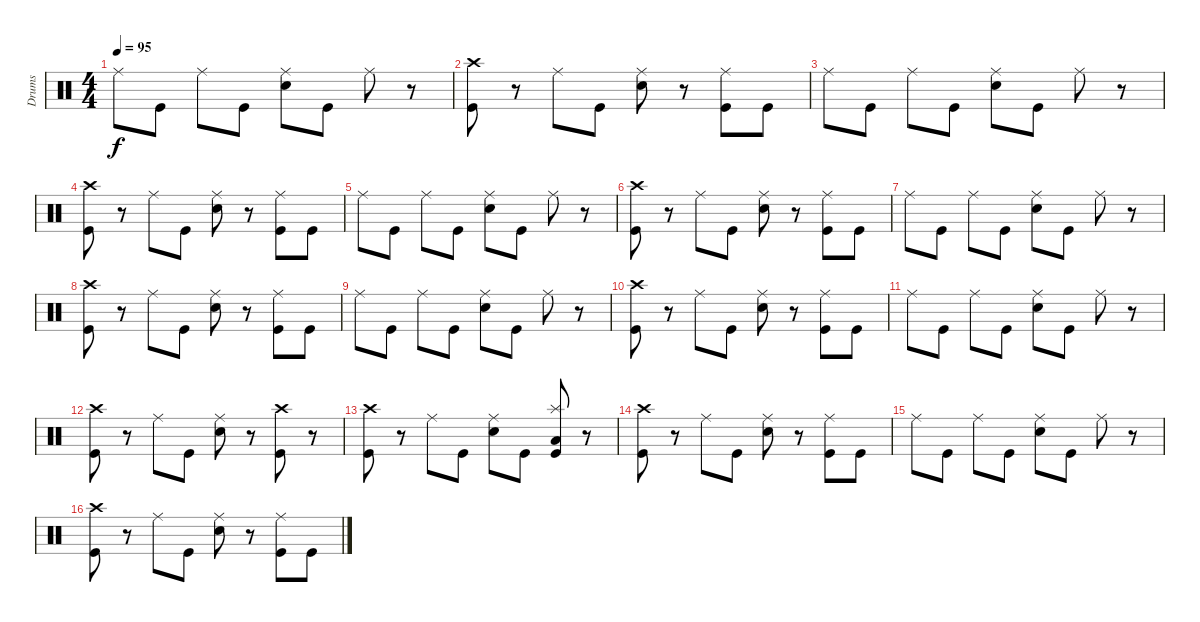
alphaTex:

\track ("Drums" "Drums") {instrument percussion}
\staff {score}
\articulation defaults
\ts (4 4)
\tempo 95
\clef neutral
\ks c "Ride (middle)".8{dy f} "Kick (hit)".8 "Ride (middle)".8 "Kick (hit)".8
("Ride (middle)" "Snare (hit) 2").8 "Kick (hit)".8 "Ride (middle)".8 r.8 |
("Crash high (hit)" "Kick (hit)").8 r.8 "Ride (middle)".8 "Kick (hit)".8 ("Ride (middle)" "Snare (hit) 2").8 r.8 ("Ride (middle)" "Kick (hit)").8 "Kick (hit)".8 |
"Ride (middle)".8 "Kick (hit)".8 "Ride (middle)".8 "Kick (hit)".8 ("Ride (middle)" "Snare (hit) 2").8 "Kick (hit)".8 "Ride (middle)".8 r.8 |
("Crash high (hit)" "Kick (hit)").8 r.8 "Ride (middle)".8 "Kick (hit)".8 ("Ride (middle)" "Snare (hit) 2").8 r.8 ("Ride (middle)" "Kick (hit)").8 "Kick (hit)".8 |
"Ride (middle)".8 "Kick (hit)".8 "Ride (middle)".8 "Kick (hit)".8 ("Ride (middle)" "Snare (hit) 2").8 "Kick (hit)".8 "Ride (middle)".8 r.8 |
("Crash high (hit)" "Kick (hit)").8 r.8 "Ride (middle)".8 "Kick (hit)".8 ("Ride (middle)" "Snare (hit) 2").8 r.8 ("Ride (middle)" "Kick (hit)").8 "Kick (hit)".8 |
"Ride (middle)".8 "Kick (hit)".8 "Ride (middle)".8 "Kick (hit)".8 ("Ride (middle)" "Snare (hit) 2").8 "Kick (hit)".8 "Ride (middle)".8 r.8 |
("Crash high (hit)" "Kick (hit)").8 r.8 "Ride (middle)".8 "Kick (hit)".8 ("Ride (middle)" "Snare (hit) 2").8 r.8 ("Ride (middle)" "Kick (hit)").8 "Kick (hit)".8 |
"Ride (middle)".8 "Kick (hit)".8 "Ride (middle)".8 "Kick (hit)".8 ("Ride (middle)" "Snare (hit) 2").8 "Kick (hit)".8 "Ride (middle)".8 r.8 |
("Crash high (hit)" "Kick (hit)").8 r.8 "Ride (middle)".8 "Kick (hit)".8 ("Ride (middle)" "Snare (hit) 2").8 r.8 ("Ride (middle)" "Kick (hit)").8 "Kick (hit)".8 |
"Ride (middle)".8 "Kick (hit)".8 "Ride (middle)".8 "Kick (hit)".8 ("Ride (middle)" "Snare (hit) 2").8 "Kick (hit)".8 "Ride (middle)".8 r.8 |
("Crash high (hit)" "Kick (hit)").8 r.8 "Ride (middle)".8 "Kick (hit)".8 ("Ride (middle)" "Snare (hit) 2").8 r.8 ("Crash high (hit)" "Kick (hit)").8 r.8 |
("Crash high (hit)" "Kick (hit)").8 r.8 "Ride (middle)".8 "Kick (hit)".8 ("Ride (middle)" "Snare (hit) 2").8 "Kick (hit)".8 ("Splash (hit)" "Low Floor Tom (hit)" "Kick (hit)").8 r.8 |
("Crash high (hit)" "Kick (hit)").8 r.8 "Ride (middle)".8 "Kick (hit)".8 ("Ride (middle)" "Snare (hit) 2").8 r.8 ("Ride (middle)" "Kick (hit)").8 "Kick (hit)".8 |
"Ride (middle)".8 "Kick (hit)".8 "Ride (middle)".8 "Kick (hit)".8 ("Ride (middle)" "Snare (hit) 2").8 "Kick (hit)".8 "Ride (middle)".8 r.8 |
("Crash high (hit)" "Kick (hit)").8 r.8 "Ride (middle)".8 "Kick (hit)".8 ("Ride (middle)" "Snare (hit) 2").8 r.8 ("Ride (middle)" "Kick (hit)").8 "Kick (hit)".8
